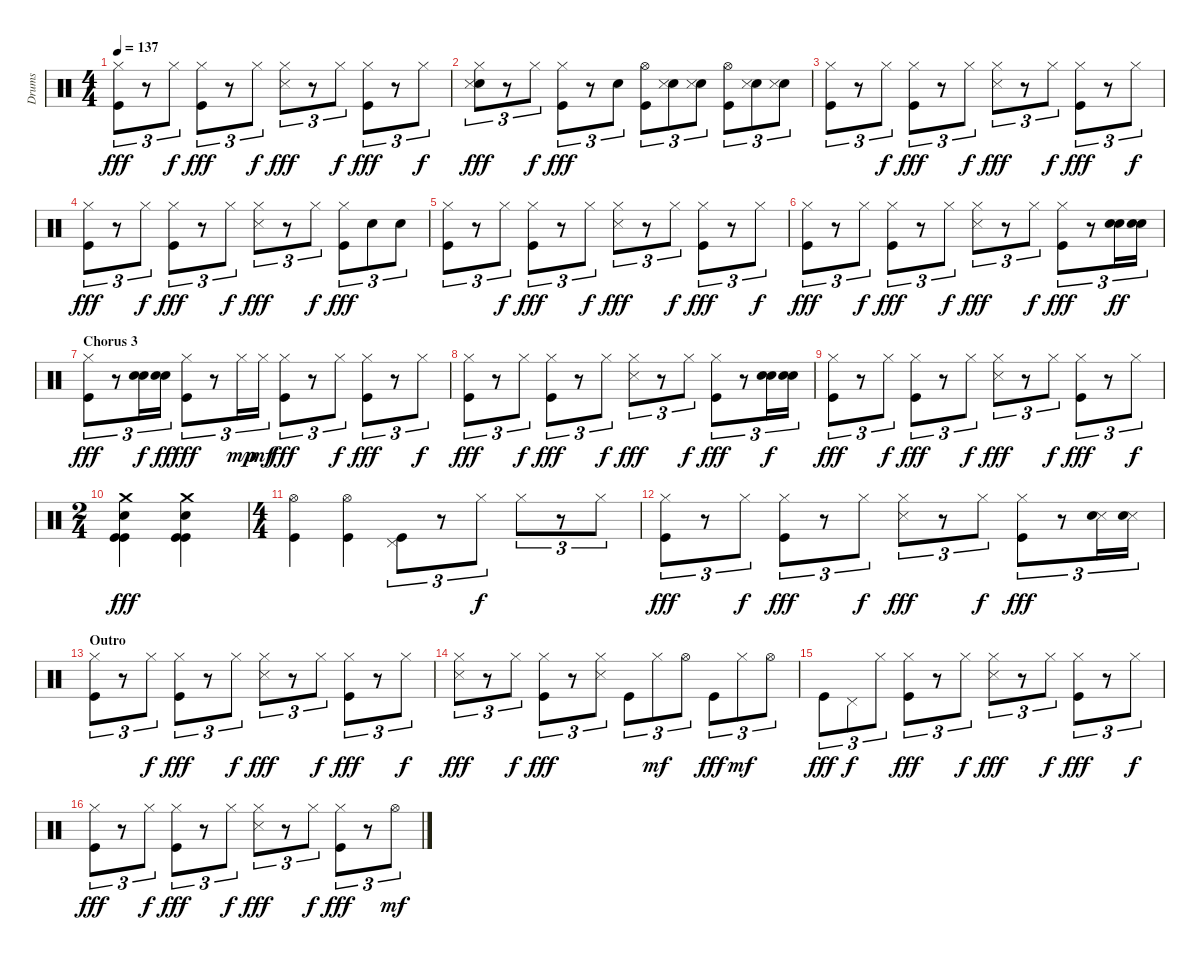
\track ("Drums" "Drums") {instrument percussion}
\staff {score}
\articulation defaults
\ts (4 4)
\tempo 137
\clef neutral
\ks c
("Hi-Hat (closed)" "Kick (hit)").8{tu (3 2) dy fff} r.8{tu (3 2)} "Hi-Hat (closed)".8{tu (3 2) dy f} ("Hi-Hat (closed)" "Kick (hit)").8{tu (3 2) dy fff} r.8{tu (3 2)} "Hi-Hat (closed)".8{tu (3 2) dy f} ("Hi-Hat (closed)" "Snare (side stick) 3").8{tu (3 2) dy fff} r.8{tu (3 2)} "Hi-Hat (closed)".8{tu (3 2) dy f} ("Hi-Hat (closed)" "Kick (hit)").8{tu (3 2) dy fff} r.8{tu (3 2)} "Hi-Hat (closed)".8{tu (3 2) dy f} |
("Hi-Hat (closed)" "Electric Snare (hit)" "Snare (side stick) 3").8{tu (3 2) dy fff volume 16} r.8{tu (3 2)} "Hi-Hat (closed)".8{tu (3 2) dy f volume 10} ("Hi-Hat (closed)" "Kick (hit)").8{tu (3 2) dy fff} r.8{tu (3 2)} "Electric Snare (hit)".8{tu (3 2) volume 16} ("Hi-Hat (open)" "Kick (hit)").8{tu (3 2) volume 10} ("Electric Snare (hit)" "Snare (side stick) 3").8{tu (3 2) volume 16} ("Electric Snare (hit)" "Snare (side stick) 3").8{tu (3 2)} ("Hi-Hat (open)" "Kick (hit)").8{tu (3 2) volume 10} ("Electric Snare (hit)" "Snare (side stick) 3").8{tu (3 2) volume 16} ("Electric Snare (hit)" "Snare (side stick) 3").8{tu (3 2)} |
("Hi-Hat (closed)" "Kick (hit)").8{tu (3 2) volume 10} r.8{tu (3 2)} "Hi-Hat (closed)".8{tu (3 2) dy f} ("Hi-Hat (closed)" "Kick (hit)").8{tu (3 2) dy fff} r.8{tu (3 2)} "Hi-Hat (closed)".8{tu (3 2) dy f} ("Hi-Hat (closed)" "Snare (side stick) 3").8{tu (3 2) dy fff} r.8{tu (3 2)} "Hi-Hat (closed)".8{tu (3 2) dy f} ("Hi-Hat (closed)" "Kick (hit)").8{tu (3 2) dy fff} r.8{tu (3 2)} "Hi-Hat (closed)".8{tu (3 2) dy f} |
("Hi-Hat (closed)" "Kick (hit)").8{tu (3 2) dy fff} r.8{tu (3 2)} "Hi-Hat (closed)".8{tu (3 2) dy f} ("Hi-Hat (closed)" "Kick (hit)").8{tu (3 2) dy fff} r.8{tu (3 2)} "Hi-Hat (closed)".8{tu (3 2) dy f} ("Hi-Hat (closed)" "Snare (side stick) 3").8{tu (3 2) dy fff} r.8{tu (3 2)} "Hi-Hat (closed)".8{tu (3 2) dy f} ("Hi-Hat (closed)" "Kick (hit)").8{tu (3 2) dy fff} "Electric Snare (hit)".8{tu (3 2) volume 16} "Electric Snare (hit)".8{tu (3 2)} |
("Hi-Hat (closed)" "Kick (hit)").8{tu (3 2) volume 10} r.8{tu (3 2)} "Hi-Hat (closed)".8{tu (3 2) dy f} ("Hi-Hat (closed)" "Kick (hit)").8{tu (3 2) dy fff} r.8{tu (3 2)} "Hi-Hat (closed)".8{tu (3 2) dy f} ("Hi-Hat (closed)" "Snare (side stick) 3").8{tu (3 2) dy fff} r.8{tu (3 2)} "Hi-Hat (closed)".8{tu (3 2) dy f} ("Hi-Hat (closed)" "Kick (hit)").8{tu (3 2) dy fff} r.8{tu (3 2)} "Hi-Hat (closed)".8{tu (3 2) dy f} |
("Hi-Hat (closed)" "Kick (hit)").8{tu (3 2) dy fff} r.8{tu (3 2)} "Hi-Hat (closed)".8{tu (3 2) dy f} ("Hi-Hat (closed)" "Kick (hit)").8{tu (3 2) dy fff} r.8{tu (3 2)} "Hi-Hat (closed)".8{tu (3 2) dy f} ("Hi-Hat (closed)" "Snare (side stick) 3").8{tu (3 2) dy fff} r.8{tu (3 2)} "Hi-Hat (closed)".8{tu (3 2) dy f} ("Hi-Hat (closed)" "Kick (hit)").8{tu (3 2) dy fff} r.8{tu (3 2)} ("Snare (hit) 2" "Electric Snare (hit)").16{tu (3 2) dy ff volume 16} ("Snare (hit) 2" "Electric Snare (hit)").16{tu (3 2)} |
\section ("" "Chorus 3")
("Hi-Hat (closed)" "Kick (hit)").8{tu (3 2) dy fff volume 10} r.8{tu (3 2)} ("Snare (hit) 2" "Electric Snare (hit)").16{tu (3 2) dy f volume 16} ("Snare (hit) 2" "Electric Snare (hit)").16{tu (3 2) dy ff} ("Hi-Hat (closed)" "Kick (hit)").8{tu (3 2) dy fff volume 10} r.8{tu (3 2)} "Hi-Hat (closed)".16{tu (3 2) dy mp} "Hi-Hat (closed)".16{tu (3 2) dy mf} ("Hi-Hat (closed)" "Kick (hit)").8{tu (3 2) dy fff} r.8{tu (3 2)} "Hi-Hat (closed)".8{tu (3 2) dy f} ("Hi-Hat (closed)" "Kick (hit)").8{tu (3 2) dy fff} r.8{tu (3 2)} "Hi-Hat (closed)".8{tu (3 2) dy f} |
("Hi-Hat (closed)" "Kick (hit)").8{tu (3 2) dy fff} r.8{tu (3 2)} "Hi-Hat (closed)".8{tu (3 2) dy f} ("Hi-Hat (closed)" "Kick (hit)").8{tu (3 2) dy fff} r.8{tu (3 2)} "Hi-Hat (closed)".8{tu (3 2) dy f} ("Hi-Hat (closed)" "Snare (side stick) 3").8{tu (3 2) dy fff} r.8{tu (3 2)} "Hi-Hat (closed)".8{tu (3 2) dy f} ("Hi-Hat (closed)" "Kick (hit)").8{tu (3 2) dy fff} r.8{tu (3 2)} ("Snare (hit) 2" "Electric Snare (hit)").16{tu (3 2) dy f volume 16} ("Snare (hit) 2" "Electric Snare (hit)").16{tu (3 2)} |
("Hi-Hat (closed)" "Kick (hit)").8{tu (3 2) dy fff volume 10} r.8{tu (3 2)} "Hi-Hat (closed)".8{tu (3 2) dy f} ("Hi-Hat (closed)" "Kick (hit)").8{tu (3 2) dy fff} r.8{tu (3 2)} "Hi-Hat (closed)".8{tu (3 2) dy f} ("Hi-Hat (closed)" "Snare (side stick) 3").8{tu (3 2) dy fff} r.8{tu (3 2)} "Hi-Hat (closed)".8{tu (3 2) dy f} ("Hi-Hat (closed)" "Kick (hit)").8{tu (3 2) dy fff} r.8{tu (3 2)} "Hi-Hat (closed)".8{tu (3 2) dy f} |
\ts (2 4)
("Crash medium (hit)" "Electric Snare (hit)" "Kick (hit)" "Kick (hit)").4{dy fff volume 16} ("Crash medium (hit)" "Electric Snare (hit)" "Kick (hit)" "Kick (hit)").4 |
\ts (4 4)
("Hi-Hat (open)" "Kick (hit)").4{volume 10} ("Hi-Hat (open)" "Kick (hit)").4 ("Pedal Hi-Hat (hit)" "Kick (hit)").8{tu (3 2)} r.8{tu (3 2)} "Hi-Hat (closed)".8{tu (3 2) dy f} "Hi-Hat (closed)".8{tu (3 2)} r.8{tu (3 2)} "Hi-Hat (closed)".8{tu (3 2)} |
("Hi-Hat (closed)" "Kick (hit)").8{tu (3 2) dy fff volume 10} r.8{tu (3 2)} "Hi-Hat (closed)".8{tu (3 2) dy f} ("Hi-Hat (closed)" "Kick (hit)").8{tu (3 2) dy fff} r.8{tu (3 2)} "Hi-Hat (closed)".8{tu (3 2) dy f} ("Hi-Hat (closed)" "Snare (side stick) 3").8{tu (3 2) dy fff} r.8{tu (3 2)} "Hi-Hat (closed)".8{tu (3 2) dy f} ("Hi-Hat (closed)" "Kick (hit)").8{tu (3 2) dy fff} r.8{tu (3 2)} ("Snare (side stick) 3" "Electric Snare (hit)").16{tu (3 2) volume 16} ("Snare (side stick) 3" "Electric Snare (hit)").16{tu (3 2)} |
\section ("" "Outro")
("Hi-Hat (closed)" "Kick (hit)").8{tu (3 2) volume 10} r.8{tu (3 2)} "Hi-Hat (closed)".8{tu (3 2) dy f} ("Hi-Hat (closed)" "Kick (hit)").8{tu (3 2) dy fff} r.8{tu (3 2)} "Hi-Hat (closed)".8{tu (3 2) dy f} ("Hi-Hat (closed)" "Snare (side stick) 3").8{tu (3 2) dy fff} r.8{tu (3 2)} "Hi-Hat (closed)".8{tu (3 2) dy f} ("Hi-Hat (closed)" "Kick (hit)").8{tu (3 2) dy fff} r.8{tu (3 2)} "Hi-Hat (closed)".8{tu (3 2) dy f} |
("Hi-Hat (closed)" "Snare (side stick) 3").8{tu (3 2) dy fff} r.8{tu (3 2)} "Hi-Hat (closed)".8{tu (3 2) dy f} ("Hi-Hat (closed)" "Kick (hit)").8{tu (3 2) dy fff} r.8{tu (3 2)} ("Hi-Hat (closed)" "Snare (side stick) 3").8{tu (3 2)} "Kick (hit)".8{tu (3 2)} "Hi-Hat (closed)".8{tu (3 2) dy mf} "Hi-Hat (open)".8{tu (3 2)} "Kick (hit)".8{tu (3 2) dy fff} "Hi-Hat (closed)".8{tu (3 2) dy mf} "Hi-Hat (open)".8{tu (3 2)} |
"Kick (hit)".8{tu (3 2) dy fff} "Pedal Hi-Hat (hit)".8{tu (3 2) dy f} "Hi-Hat (closed)".8{tu (3 2)} ("Hi-Hat (closed)" "Kick (hit)").8{tu (3 2) dy fff} r.8{tu (3 2)} "Hi-Hat (closed)".8{tu (3 2) dy f} ("Hi-Hat (closed)" "Snare (side stick) 3").8{tu (3 2) dy fff} r.8{tu (3 2)} "Hi-Hat (closed)".8{tu (3 2) dy f} ("Hi-Hat (closed)" "Kick (hit)").8{tu (3 2) dy fff} r.8{tu (3 2)} "Hi-Hat (closed)".8{tu (3 2) dy f} |
("Hi-Hat (closed)" "Kick (hit)").8{tu (3 2) dy fff} r.8{tu (3 2)} "Hi-Hat (closed)".8{tu (3 2) dy f} ("Hi-Hat (closed)" "Kick (hit)").8{tu (3 2) dy fff} r.8{tu (3 2)} "Hi-Hat (closed)".8{tu (3 2) dy f} ("Hi-Hat (closed)" "Snare (side stick) 3").8{tu (3 2) dy fff} r.8{tu (3 2)} "Hi-Hat (closed)".8{tu (3 2) dy f} ("Hi-Hat (closed)" "Kick (hit)").8{tu (3 2) dy fff} r.8{tu (3 2)} "Hi-Hat (open)".8{tu (3 2) dy mf}
